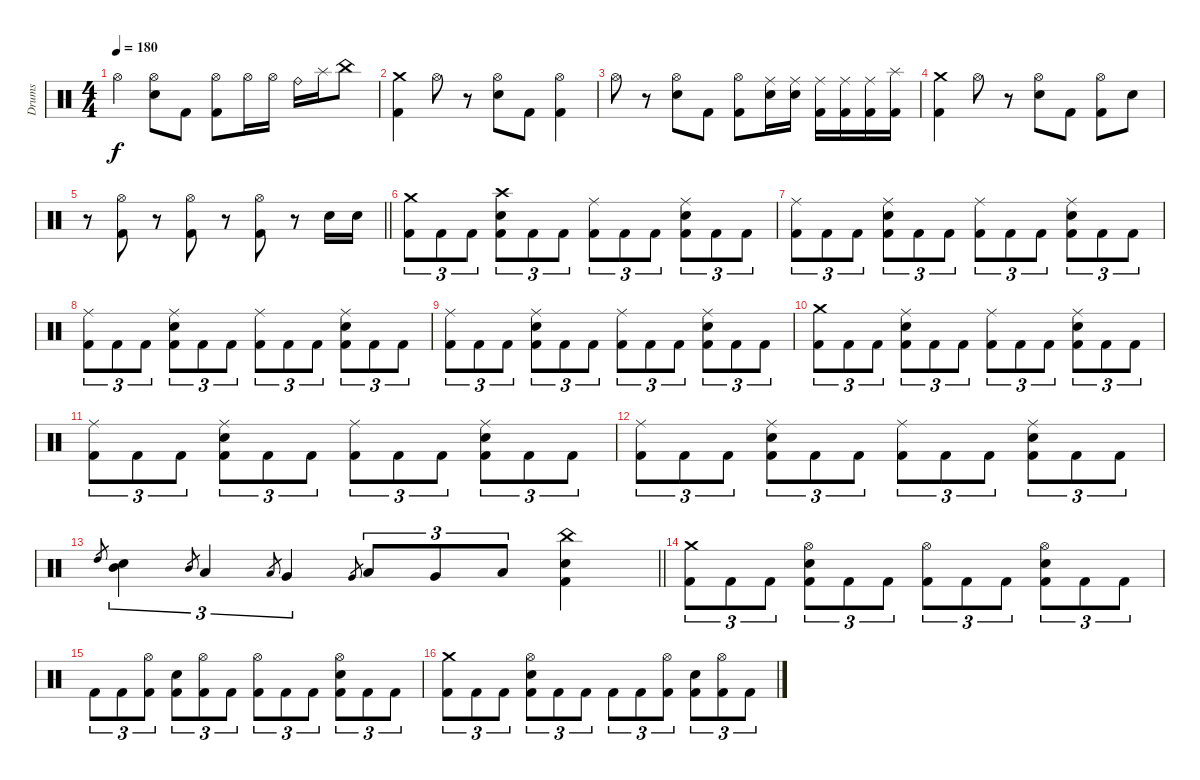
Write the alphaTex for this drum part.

\track ("Drums" "Drums") {instrument percussion}
\staff {score}
\articulation defaults
\ts (4 4)
\tempo 180
\clef neutral
\ks c "Hi-Hat (open)".4{dy f}
("Hi-Hat (open)" "Electric Snare (hit)").8 "Kick (hit) 2".8 ("Hi-Hat (open)" "Kick (hit) 2").8 "Hi-Hat (open)".16 "Hi-Hat (open)".16 "Ride (bell)".16 "Splash (hit)".16 "China (hit)".8 |
("Crash medium (hit)" "Kick (hit) 2").4 "Hi-Hat (open)".8 r.8 ("Hi-Hat (open)" "Electric Snare (hit)").8 "Kick (hit) 2".8 ("Hi-Hat (open)" "Kick (hit) 2").4 |
"Hi-Hat (open)".8 r.8 ("Hi-Hat (open)" "Electric Snare (hit)").8 "Kick (hit) 2".8 ("Hi-Hat (open)" "Kick (hit) 2").8 ("Ride (middle)" "Electric Snare (hit)").16 ("Ride (middle)" "Electric Snare (hit)").16 ("Ride (middle)" "Kick (hit) 2").16 ("Ride (middle)" "Kick (hit) 2").16 ("Ride (middle)" "Kick (hit) 2").16 ("Splash (hit)" "Kick (hit) 2").16 |
("Crash medium (hit)" "Kick (hit) 2").4 "Hi-Hat (open)".8 r.8 ("Hi-Hat (open)" "Electric Snare (hit)").8 "Kick (hit) 2".8 ("Hi-Hat (open)" "Kick (hit) 2").8 "Electric Snare (hit)".8 |
\barLineRight lightlight
r.8 ("Hi-Hat (open)" "Kick (hit) 2").8 r.8 ("Hi-Hat (open)" "Kick (hit) 2").8 r.8 ("Hi-Hat (open)" "Kick (hit) 2").8 r.8 "Electric Snare (hit)".16 "Electric Snare (hit)".16 |
\section ("" "")
("Crash medium (hit)" "Kick (hit) 2").8{tu (3 2)} "Kick (hit) 2".8{tu (3 2)} "Kick (hit) 2".8{tu (3 2)} ("Crash high (hit)" "Electric Snare (hit)" "Kick (hit) 2").8{tu (3 2)} "Kick (hit) 2".8{tu (3 2)} "Kick (hit) 2".8{tu (3 2)} ("Ride (middle)" "Kick (hit) 2").8{tu (3 2)} "Kick (hit) 2".8{tu (3 2)} "Kick (hit) 2".8{tu (3 2)} ("Ride (middle)" "Electric Snare (hit)" "Kick (hit) 2").8{tu (3 2)} "Kick (hit) 2".8{tu (3 2)} "Kick (hit) 2".8{tu (3 2)} |
("Ride (middle)" "Kick (hit) 2").8{tu (3 2)} "Kick (hit) 2".8{tu (3 2)} "Kick (hit) 2".8{tu (3 2)} ("Ride (middle)" "Electric Snare (hit)" "Kick (hit) 2").8{tu (3 2)} "Kick (hit) 2".8{tu (3 2)} "Kick (hit) 2".8{tu (3 2)} ("Ride (middle)" "Kick (hit) 2").8{tu (3 2)} "Kick (hit) 2".8{tu (3 2)} "Kick (hit) 2".8{tu (3 2)} ("Ride (middle)" "Electric Snare (hit)" "Kick (hit) 2").8{tu (3 2)} "Kick (hit) 2".8{tu (3 2)} "Kick (hit) 2".8{tu (3 2)} |
("Ride (middle)" "Kick (hit) 2").8{tu (3 2)} "Kick (hit) 2".8{tu (3 2)} "Kick (hit) 2".8{tu (3 2)} ("Ride (middle)" "Electric Snare (hit)" "Kick (hit) 2").8{tu (3 2)} "Kick (hit) 2".8{tu (3 2)} "Kick (hit) 2".8{tu (3 2)} ("Ride (middle)" "Kick (hit) 2").8{tu (3 2)} "Kick (hit) 2".8{tu (3 2)} "Kick (hit) 2".8{tu (3 2)} ("Ride (middle)" "Electric Snare (hit)" "Kick (hit) 2").8{tu (3 2)} "Kick (hit) 2".8{tu (3 2)} "Kick (hit) 2".8{tu (3 2)} |
("Ride (middle)" "Kick (hit) 2").8{tu (3 2)} "Kick (hit) 2".8{tu (3 2)} "Kick (hit) 2".8{tu (3 2)} ("Ride (middle)" "Electric Snare (hit)" "Kick (hit) 2").8{tu (3 2)} "Kick (hit) 2".8{tu (3 2)} "Kick (hit) 2".8{tu (3 2)} ("Ride (middle)" "Kick (hit) 2").8{tu (3 2)} "Kick (hit) 2".8{tu (3 2)} "Kick (hit) 2".8{tu (3 2)} ("Ride (middle)" "Electric Snare (hit)" "Kick (hit) 2").8{tu (3 2)} "Kick (hit) 2".8{tu (3 2)} "Kick (hit) 2".8{tu (3 2)} |
("Crash medium (hit)" "Kick (hit) 2").8{tu (3 2)} "Kick (hit) 2".8{tu (3 2)} "Kick (hit) 2".8{tu (3 2)} ("Ride (middle)" "Electric Snare (hit)" "Kick (hit) 2").8{tu (3 2)} "Kick (hit) 2".8{tu (3 2)} "Kick (hit) 2".8{tu (3 2)} ("Ride (middle)" "Kick (hit) 2").8{tu (3 2)} "Kick (hit) 2".8{tu (3 2)} "Kick (hit) 2".8{tu (3 2)} ("Ride (middle)" "Electric Snare (hit)" "Kick (hit) 2").8{tu (3 2)} "Kick (hit) 2".8{tu (3 2)} "Kick (hit) 2".8{tu (3 2)} |
("Ride (middle)" "Kick (hit) 2").8{tu (3 2)} "Kick (hit) 2".8{tu (3 2)} "Kick (hit) 2".8{tu (3 2)} ("Ride (middle)" "Electric Snare (hit)" "Kick (hit) 2").8{tu (3 2)} "Kick (hit) 2".8{tu (3 2)} "Kick (hit) 2".8{tu (3 2)} ("Ride (middle)" "Kick (hit) 2").8{tu (3 2)} "Kick (hit) 2".8{tu (3 2)} "Kick (hit) 2".8{tu (3 2)} ("Ride (middle)" "Electric Snare (hit)" "Kick (hit) 2").8{tu (3 2)} "Kick (hit) 2".8{tu (3 2)} "Kick (hit) 2".8{tu (3 2)} |
("Ride (middle)" "Kick (hit) 2").8{tu (3 2)} "Kick (hit) 2".8{tu (3 2)} "Kick (hit) 2".8{tu (3 2)} ("Ride (middle)" "Electric Snare (hit)" "Kick (hit) 2").8{tu (3 2)} "Kick (hit) 2".8{tu (3 2)} "Kick (hit) 2".8{tu (3 2)} ("Ride (middle)" "Kick (hit) 2").8{tu (3 2)} "Kick (hit) 2".8{tu (3 2)} "Kick (hit) 2".8{tu (3 2)} ("Ride (middle)" "Electric Snare (hit)" "Kick (hit) 2").8{tu (3 2)} "Kick (hit) 2".8{tu (3 2)} "Kick (hit) 2".8{tu (3 2)} |
\barLineRight lightlight "High Tom (hit)".8{gr}
("Electric Snare (hit)" "Mid Tom (hit)").4{tu (3 2)} "Mid Tom (hit)".8{gr} "Low Tom (hit)".4{tu (3 2)} "Low Tom (hit)".8{gr} "Very Low Tom (hit)".4{tu (3 2)} "Very Low Tom (hit)".8{gr} "Low Floor Tom (hit)".8{tu (3 2)} "Very Low Tom (hit)".8{tu (3 2)} "Low Floor Tom (hit)".8{tu (3 2)} ("China (hit)" "Electric Snare (hit)" "Kick (hit) 2").4 |
\section ("" "")
("Crash medium (hit)" "Kick (hit) 2").8{tu (3 2)} "Kick (hit) 2".8{tu (3 2)} "Kick (hit) 2".8{tu (3 2)} ("Hi-Hat (open)" "Electric Snare (hit)" "Kick (hit) 2").8{tu (3 2)} "Kick (hit) 2".8{tu (3 2)} "Kick (hit) 2".8{tu (3 2)} ("Hi-Hat (open)" "Kick (hit) 2").8{tu (3 2)} "Kick (hit) 2".8{tu (3 2)} "Kick (hit) 2".8{tu (3 2)} ("Hi-Hat (open)" "Electric Snare (hit)" "Kick (hit) 2").8{tu (3 2)} "Kick (hit) 2".8{tu (3 2)} "Kick (hit) 2".8{tu (3 2)} |
"Kick (hit) 2".8{tu (3 2)} "Kick (hit) 2".8{tu (3 2)} ("Hi-Hat (open)" "Kick (hit) 2").8{tu (3 2)} ("Electric Snare (hit)" "Kick (hit) 2").8{tu (3 2)} ("Hi-Hat (open)" "Kick (hit) 2").8{tu (3 2)} "Kick (hit) 2".8{tu (3 2)} ("Hi-Hat (open)" "Kick (hit) 2").8{tu (3 2)} "Kick (hit) 2".8{tu (3 2)} "Kick (hit) 2".8{tu (3 2)} ("Hi-Hat (open)" "Electric Snare (hit)" "Kick (hit) 2").8{tu (3 2)} "Kick (hit) 2".8{tu (3 2)} "Kick (hit) 2".8{tu (3 2)} |
("Crash medium (hit)" "Kick (hit) 2").8{tu (3 2)} "Kick (hit) 2".8{tu (3 2)} "Kick (hit) 2".8{tu (3 2)} ("Hi-Hat (open)" "Electric Snare (hit)" "Kick (hit) 2").8{tu (3 2)} "Kick (hit) 2".8{tu (3 2)} "Kick (hit) 2".8{tu (3 2)} "Kick (hit) 2".8{tu (3 2)} "Kick (hit) 2".8{tu (3 2)} ("Hi-Hat (open)" "Kick (hit) 2").8{tu (3 2)} ("Electric Snare (hit)" "Kick (hit) 2").8{tu (3 2)} ("Hi-Hat (open)" "Kick (hit) 2").8{tu (3 2)} "Kick (hit) 2".8{tu (3 2)}
